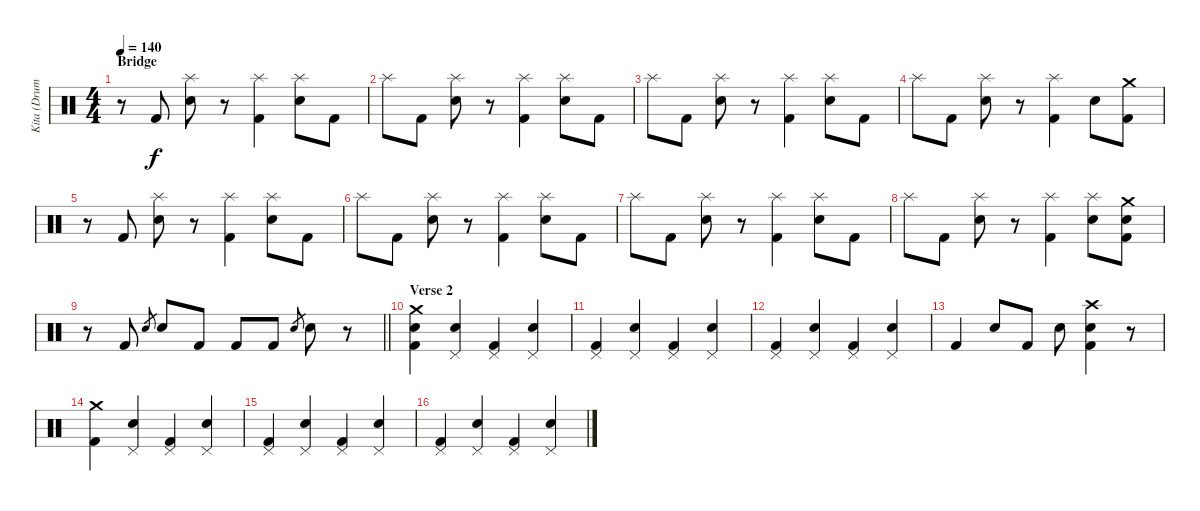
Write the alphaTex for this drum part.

\track ("Kita (Drums)" "Kita (Drum") {instrument percussion}
\staff {score}
\articulation defaults
\ts (4 4)
\section ("" "Bridge")
\tempo 140
\clef neutral
\ks c
r.8{dy f} "Kick (hit) 2".8 ("Splash (hit)" "Snare (hit) 2").8 r.8 ("Splash (hit)" "Kick (hit) 2").4 ("Splash (hit)" "Snare (hit) 2").8 "Kick (hit) 2".8 |
"Splash (hit)".8 "Kick (hit) 2".8 ("Splash (hit)" "Snare (hit) 2").8 r.8 ("Splash (hit)" "Kick (hit) 2").4 ("Splash (hit)" "Snare (hit) 2").8 "Kick (hit) 2".8 |
"Splash (hit)".8 "Kick (hit) 2".8 ("Splash (hit)" "Snare (hit) 2").8 r.8 ("Splash (hit)" "Kick (hit) 2").4 ("Splash (hit)" "Snare (hit) 2").8 "Kick (hit) 2".8 |
"Splash (hit)".8 "Kick (hit) 2".8 ("Splash (hit)" "Snare (hit) 2").8 r.8 ("Splash (hit)" "Kick (hit) 2").4 "Snare (hit) 2".8 ("Crash medium (hit)" "Kick (hit) 2").8 |
r.8 "Kick (hit) 2".8 ("Splash (hit)" "Snare (hit) 2").8 r.8 ("Splash (hit)" "Kick (hit) 2").4 ("Splash (hit)" "Snare (hit) 2").8 "Kick (hit) 2".8 |
"Splash (hit)".8 "Kick (hit) 2".8 ("Splash (hit)" "Snare (hit) 2").8 r.8 ("Splash (hit)" "Kick (hit) 2").4 ("Splash (hit)" "Snare (hit) 2").8 "Kick (hit) 2".8 |
"Splash (hit)".8 "Kick (hit) 2".8 ("Splash (hit)" "Snare (hit) 2").8 r.8 ("Splash (hit)" "Kick (hit) 2").4 ("Splash (hit)" "Snare (hit) 2").8 "Kick (hit) 2".8 |
"Splash (hit)".8 "Kick (hit) 2".8 ("Splash (hit)" "Snare (hit) 2").8 r.8 ("Splash (hit)" "Kick (hit) 2").4 ("Splash (hit)" "Snare (hit) 2").8 ("Crash medium (hit)" "Snare (hit) 2" "Kick (hit) 2").8 |
\barLineRight lightlight
r.8 "Kick (hit) 2".8 "Snare (hit) 2".8{gr} "Snare (hit) 2".8 "Kick (hit) 2".8 "Kick (hit) 2".8 "Kick (hit) 2".8 "Snare (hit) 2".8{gr} "Snare (hit) 2".8 r.8 |
\section ("" "Verse 2")
("Crash medium (hit)" "Snare (hit) 2" "Kick (hit) 2").4 ("Pedal Hi-Hat (hit)" "Snare (hit) 2").4 ("Pedal Hi-Hat (hit)" "Kick (hit) 2").4 ("Pedal Hi-Hat (hit)" "Snare (hit) 2").4 |
("Pedal Hi-Hat (hit)" "Kick (hit) 2").4 ("Pedal Hi-Hat (hit)" "Snare (hit) 2").4 ("Pedal Hi-Hat (hit)" "Kick (hit) 2").4 ("Pedal Hi-Hat (hit)" "Snare (hit) 2").4 |
("Pedal Hi-Hat (hit)" "Kick (hit) 2").4 ("Pedal Hi-Hat (hit)" "Snare (hit) 2").4 ("Pedal Hi-Hat (hit)" "Kick (hit) 2").4 ("Pedal Hi-Hat (hit)" "Snare (hit) 2").4 |
"Kick (hit) 2".4 "Snare (hit) 2".8 "Kick (hit) 2".8 "Snare (hit) 2".8 ("Crash high (hit)" "Snare (hit) 2" "Kick (hit) 2").4 r.8 |
("Crash medium (hit)" "Kick (hit) 2").4 ("Pedal Hi-Hat (hit)" "Snare (hit) 2").4 ("Pedal Hi-Hat (hit)" "Kick (hit) 2").4 ("Pedal Hi-Hat (hit)" "Snare (hit) 2").4 |
("Pedal Hi-Hat (hit)" "Kick (hit) 2").4 ("Pedal Hi-Hat (hit)" "Snare (hit) 2").4 ("Pedal Hi-Hat (hit)" "Kick (hit) 2").4 ("Pedal Hi-Hat (hit)" "Snare (hit) 2").4 |
("Pedal Hi-Hat (hit)" "Kick (hit) 2").4 ("Pedal Hi-Hat (hit)" "Snare (hit) 2").4 ("Pedal Hi-Hat (hit)" "Kick (hit) 2").4 ("Pedal Hi-Hat (hit)" "Snare (hit) 2").4
